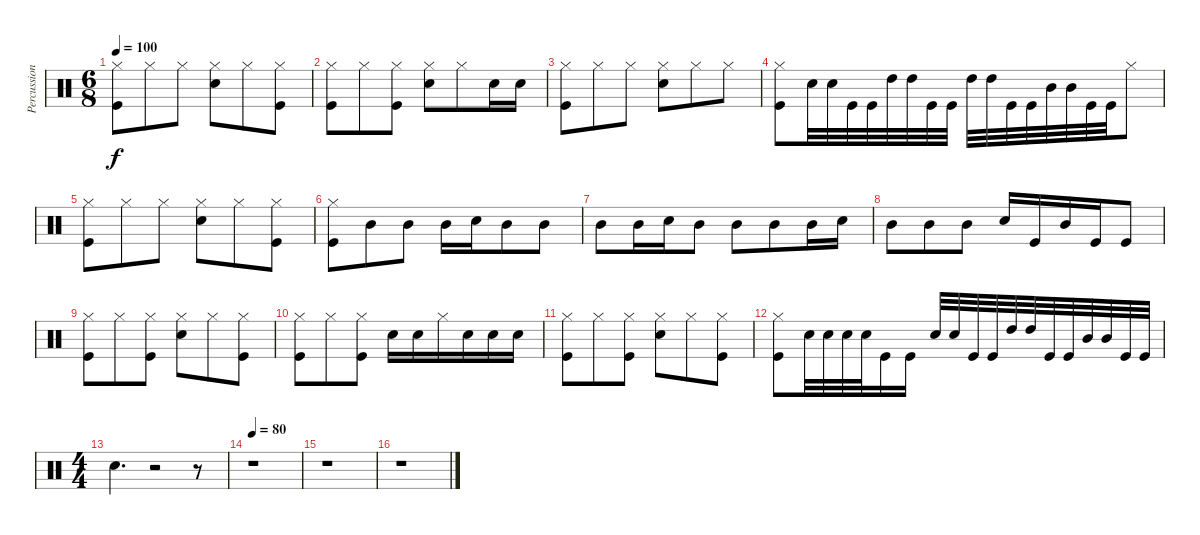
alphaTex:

\track ("Percussion" "Percussion") {instrument percussion}
\staff {score}
\articulation defaults
\ts (6 8)
\tempo 100
\clef neutral
\ks c
("Hi-Hat (closed)" "Kick (hit)").8{dy f} "Hi-Hat (closed)".8 "Hi-Hat (closed)".8 ("Hi-Hat (closed)" "Snare (hit) 2").8 "Hi-Hat (closed)".8 ("Hi-Hat (closed)" "Kick (hit)").8 |
("Hi-Hat (closed)" "Kick (hit)").8 "Hi-Hat (closed)".8 ("Hi-Hat (closed)" "Kick (hit)").8 ("Hi-Hat (closed)" "Snare (hit) 2").8 "Hi-Hat (closed)".8 "Snare (hit) 2".16 "Snare (hit) 2".16 |
("Hi-Hat (closed)" "Kick (hit)").8 "Hi-Hat (closed)".8 "Hi-Hat (closed)".8 ("Hi-Hat (closed)" "Snare (hit) 2").8 "Hi-Hat (closed)".8 "Hi-Hat (closed)".8 |
("Hi-Hat (closed)" "Kick (hit)").8 "Snare (hit) 2".32 "Snare (hit) 2".32 "Kick (hit)".32 "Kick (hit)".32 "High Tom (hit)".32 "High Tom (hit)".32 "Kick (hit)".32 "Kick (hit)".32 "High Tom (hit)".32 "High Tom (hit)".32 "Kick (hit)".32 "Kick (hit)".32 "Mid Tom (hit)".32 "Mid Tom (hit)".32 "Kick (hit)".32 "Kick (hit)".32 "Hi-Hat (closed)".8 |
("Hi-Hat (closed)" "Kick (hit)").8 "Hi-Hat (closed)".8 "Hi-Hat (closed)".8 ("Hi-Hat (closed)" "Snare (hit) 2").8 "Hi-Hat (closed)".8 ("Hi-Hat (closed)" "Kick (hit)").8 |
("Hi-Hat (closed)" "Kick (hit)").8 "Mid Tom (hit)".8 "Mid Tom (hit)".8 "Mid Tom (hit)".16 "Snare (hit) 2".16 "Mid Tom (hit)".8 "Mid Tom (hit)".8 |
"Mid Tom (hit)".8 "Mid Tom (hit)".16 "Snare (hit) 2".16 "Mid Tom (hit)".8 "Mid Tom (hit)".8 "Mid Tom (hit)".8 "Mid Tom (hit)".16 "Snare (hit) 2".16 |
"Mid Tom (hit)".8 "Mid Tom (hit)".8 "Mid Tom (hit)".8 "Snare (hit) 2".16 "Kick (hit)".16 "Mid Tom (hit)".16 "Kick (hit)".16 "Kick (hit)".8 |
("Hi-Hat (closed)" "Kick (hit)").8 "Hi-Hat (closed)".8 ("Hi-Hat (closed)" "Kick (hit)").8 ("Hi-Hat (closed)" "Snare (hit) 2").8 "Hi-Hat (closed)".8 ("Hi-Hat (closed)" "Kick (hit)").8 |
("Hi-Hat (closed)" "Kick (hit)").8 "Hi-Hat (closed)".8 ("Hi-Hat (closed)" "Kick (hit)").8 "Snare (hit) 2".16 "Snare (hit) 2".16 "Hi-Hat (closed)".16 "Snare (hit) 2".16 "Snare (hit) 2".16 "Snare (hit) 2".16 |
("Hi-Hat (closed)" "Kick (hit)").8 "Hi-Hat (closed)".8 ("Hi-Hat (closed)" "Kick (hit)").8 ("Hi-Hat (closed)" "Snare (hit) 2").8 "Hi-Hat (closed)".8 ("Hi-Hat (closed)" "Kick (hit)").8 |
("Hi-Hat (closed)" "Kick (hit)").8 "Snare (hit) 2".32 "Snare (hit) 2".32 "Snare (hit) 2".32 "Snare (hit) 2".32 "Kick (hit)".16 "Kick (hit)".16 "Snare (hit) 2".32 "Snare (hit) 2".32 "Kick (hit)".32 "Kick (hit)".32 "High Tom (hit)".32 "High Tom (hit)".32 "Kick (hit)".32 "Kick (hit)".32 "Mid Tom (hit)".32 "Mid Tom (hit)".32 "Kick (hit)".32 "Kick (hit)".32 |
\ts (4 4)
"Snare (hit) 2".4{d} r.2 r.8 |
\tempo 80
r.1 |
r.1 |
r.1
